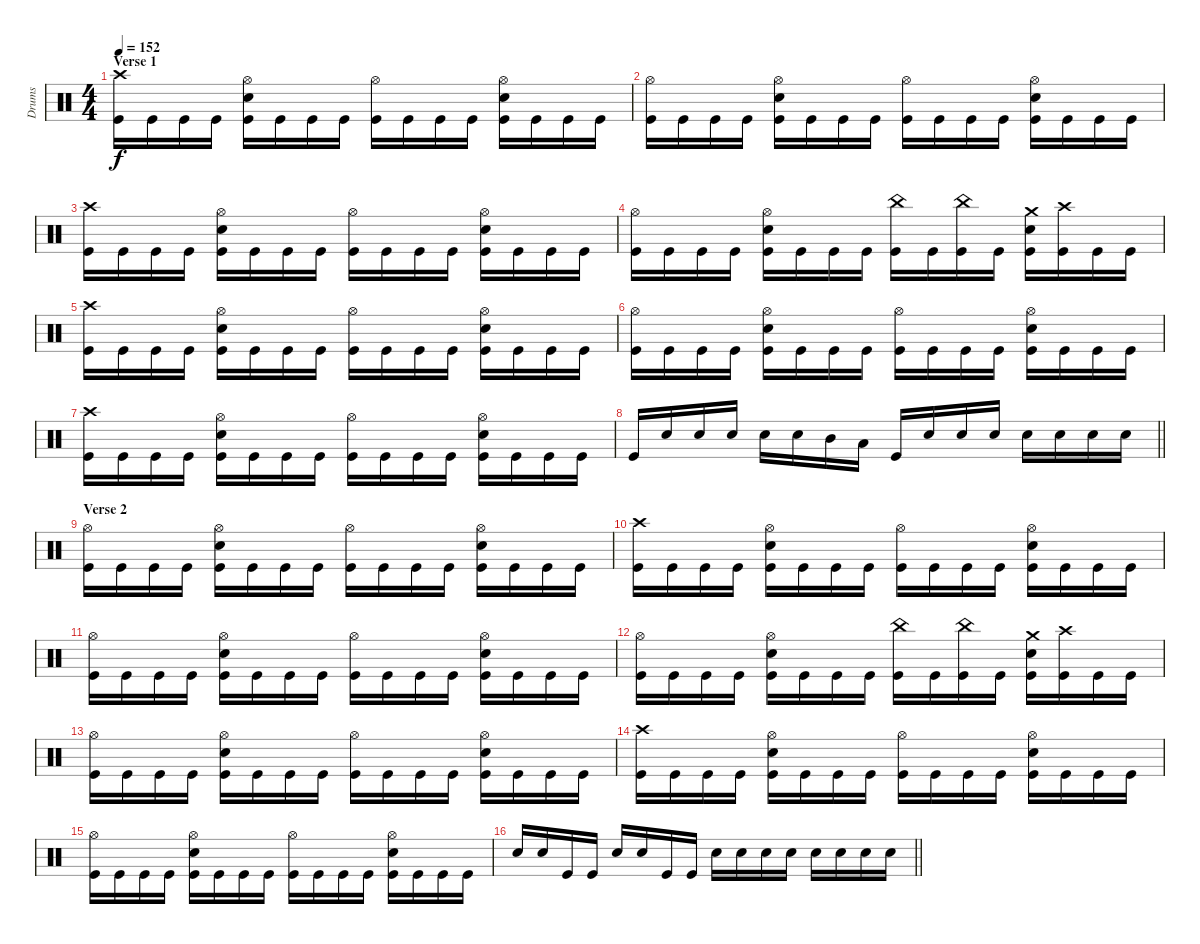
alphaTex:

\track ("Drums" "Drums") {instrument percussion}
\staff {score}
\articulation defaults
\ts (4 4)
\section ("" "Verse 1")
\tempo 152
\clef neutral
\ks c
("Crash high (hit)" "Kick (hit)").16{dy f} "Kick (hit)".16 "Kick (hit)".16 "Kick (hit)".16 ("Snare (hit) 2" "Hi-Hat (open)" "Kick (hit)").16 "Kick (hit)".16 "Kick (hit)".16 "Kick (hit)".16 ("Hi-Hat (open)" "Kick (hit)").16 "Kick (hit)".16 "Kick (hit)".16 "Kick (hit)".16 ("Hi-Hat (open)" "Snare (hit) 2" "Kick (hit)").16 "Kick (hit)".16 "Kick (hit)".16 "Kick (hit)".16 |
("Hi-Hat (open)" "Kick (hit)").16 "Kick (hit)".16 "Kick (hit)".16 "Kick (hit)".16 ("Snare (hit) 2" "Hi-Hat (open)" "Kick (hit)").16 "Kick (hit)".16 "Kick (hit)".16 "Kick (hit)".16 ("Hi-Hat (open)" "Kick (hit)").16 "Kick (hit)".16 "Kick (hit)".16 "Kick (hit)".16 ("Hi-Hat (open)" "Snare (hit) 2" "Kick (hit)").16 "Kick (hit)".16 "Kick (hit)".16 "Kick (hit)".16 |
("Crash high (hit)" "Kick (hit)").16 "Kick (hit)".16 "Kick (hit)".16 "Kick (hit)".16 ("Snare (hit) 2" "Hi-Hat (open)" "Kick (hit)").16 "Kick (hit)".16 "Kick (hit)".16 "Kick (hit)".16 ("Hi-Hat (open)" "Kick (hit)").16 "Kick (hit)".16 "Kick (hit)".16 "Kick (hit)".16 ("Hi-Hat (open)" "Snare (hit) 2" "Kick (hit)").16 "Kick (hit)".16 "Kick (hit)".16 "Kick (hit)".16 |
("Hi-Hat (open)" "Kick (hit)").16 "Kick (hit)".16 "Kick (hit)".16 "Kick (hit)".16 ("Snare (hit) 2" "Hi-Hat (open)" "Kick (hit)").16 "Kick (hit)".16 "Kick (hit)".16 "Kick (hit)".16 ("China (hit)" "Kick (hit)").16 "Kick (hit)".16 ("China (hit)" "Kick (hit)").16 "Kick (hit)".16 ("Crash medium (hit)" "Snare (hit) 2" "Kick (hit)").16 ("Crash high (hit)" "Kick (hit)").16 "Kick (hit)".16 "Kick (hit)".16 |
("Crash high (hit)" "Kick (hit)").16 "Kick (hit)".16 "Kick (hit)".16 "Kick (hit)".16 ("Snare (hit) 2" "Hi-Hat (open)" "Kick (hit)").16 "Kick (hit)".16 "Kick (hit)".16 "Kick (hit)".16 ("Hi-Hat (open)" "Kick (hit)").16 "Kick (hit)".16 "Kick (hit)".16 "Kick (hit)".16 ("Hi-Hat (open)" "Snare (hit) 2" "Kick (hit)").16 "Kick (hit)".16 "Kick (hit)".16 "Kick (hit)".16 |
("Hi-Hat (open)" "Kick (hit)").16 "Kick (hit)".16 "Kick (hit)".16 "Kick (hit)".16 ("Snare (hit) 2" "Hi-Hat (open)" "Kick (hit)").16 "Kick (hit)".16 "Kick (hit)".16 "Kick (hit)".16 ("Hi-Hat (open)" "Kick (hit)").16 "Kick (hit)".16 "Kick (hit)".16 "Kick (hit)".16 ("Hi-Hat (open)" "Snare (hit) 2" "Kick (hit)").16 "Kick (hit)".16 "Kick (hit)".16 "Kick (hit)".16 |
("Crash high (hit)" "Kick (hit)").16 "Kick (hit)".16 "Kick (hit)".16 "Kick (hit)".16 ("Snare (hit) 2" "Hi-Hat (open)" "Kick (hit)").16 "Kick (hit)".16 "Kick (hit)".16 "Kick (hit)".16 ("Hi-Hat (open)" "Kick (hit)").16 "Kick (hit)".16 "Kick (hit)".16 "Kick (hit)".16 ("Hi-Hat (open)" "Snare (hit) 2" "Kick (hit)").16 "Kick (hit)".16 "Kick (hit)".16 "Kick (hit)".16 |
\barLineRight lightlight "Kick (hit)".16 "Snare (hit) 2".16 "Snare (hit) 2".16 "Snare (hit) 2".16 "Snare (hit) 2".16 "Snare (hit) 2".16 "Mid Tom (hit)".16 "Low Tom (hit)".16 "Kick (hit)".16 "Snare (hit) 2".16 "Snare (hit) 2".16 "Snare (hit) 2".16 "Snare (hit) 2".16 "Snare (hit) 2".16 "Snare (hit) 2".16 "Snare (hit) 2".16
|
\section ("" "Verse 2")
("Hi-Hat (open)" "Kick (hit)").16 "Kick (hit)".16 "Kick (hit)".16 "Kick (hit)".16 ("Snare (hit) 2" "Hi-Hat (open)" "Kick (hit)").16 "Kick (hit)".16 "Kick (hit)".16 "Kick (hit)".16 ("Hi-Hat (open)" "Kick (hit)").16 "Kick (hit)".16 "Kick (hit)".16 "Kick (hit)".16 ("Hi-Hat (open)" "Snare (hit) 2" "Kick (hit)").16 "Kick (hit)".16 "Kick (hit)".16 "Kick (hit)".16 |
("Crash high (hit)" "Kick (hit)").16 "Kick (hit)".16 "Kick (hit)".16 "Kick (hit)".16 ("Snare (hit) 2" "Hi-Hat (open)" "Kick (hit)").16 "Kick (hit)".16 "Kick (hit)".16 "Kick (hit)".16 ("Hi-Hat (open)" "Kick (hit)").16 "Kick (hit)".16 "Kick (hit)".16 "Kick (hit)".16 ("Hi-Hat (open)" "Snare (hit) 2" "Kick (hit)").16 "Kick (hit)".16 "Kick (hit)".16 "Kick (hit)".16 |
("Hi-Hat (open)" "Kick (hit)").16 "Kick (hit)".16 "Kick (hit)".16 "Kick (hit)".16 ("Snare (hit) 2" "Hi-Hat (open)" "Kick (hit)").16 "Kick (hit)".16 "Kick (hit)".16 "Kick (hit)".16 ("Hi-Hat (open)" "Kick (hit)").16 "Kick (hit)".16 "Kick (hit)".16 "Kick (hit)".16 ("Hi-Hat (open)" "Snare (hit) 2" "Kick (hit)").16 "Kick (hit)".16 "Kick (hit)".16 "Kick (hit)".16 |
("Hi-Hat (open)" "Kick (hit)").16 "Kick (hit)".16 "Kick (hit)".16 "Kick (hit)".16 ("Snare (hit) 2" "Hi-Hat (open)" "Kick (hit)").16 "Kick (hit)".16 "Kick (hit)".16 "Kick (hit)".16 ("China (hit)" "Kick (hit)").16 "Kick (hit)".16 ("China (hit)" "Kick (hit)").16 "Kick (hit)".16 ("Crash medium (hit)" "Snare (hit) 2" "Kick (hit)").16 ("Crash high (hit)" "Kick (hit)").16 "Kick (hit)".16 "Kick (hit)".16 |
("Hi-Hat (open)" "Kick (hit)").16 "Kick (hit)".16 "Kick (hit)".16 "Kick (hit)".16 ("Snare (hit) 2" "Hi-Hat (open)" "Kick (hit)").16 "Kick (hit)".16 "Kick (hit)".16 "Kick (hit)".16 ("Hi-Hat (open)" "Kick (hit)").16 "Kick (hit)".16 "Kick (hit)".16 "Kick (hit)".16 ("Hi-Hat (open)" "Snare (hit) 2" "Kick (hit)").16 "Kick (hit)".16 "Kick (hit)".16 "Kick (hit)".16 |
("Crash high (hit)" "Kick (hit)").16 "Kick (hit)".16 "Kick (hit)".16 "Kick (hit)".16 ("Snare (hit) 2" "Hi-Hat (open)" "Kick (hit)").16 "Kick (hit)".16 "Kick (hit)".16 "Kick (hit)".16 ("Hi-Hat (open)" "Kick (hit)").16 "Kick (hit)".16 "Kick (hit)".16 "Kick (hit)".16 ("Hi-Hat (open)" "Snare (hit) 2" "Kick (hit)").16 "Kick (hit)".16 "Kick (hit)".16 "Kick (hit)".16 |
("Hi-Hat (open)" "Kick (hit)").16 "Kick (hit)".16 "Kick (hit)".16 "Kick (hit)".16 ("Snare (hit) 2" "Hi-Hat (open)" "Kick (hit)").16 "Kick (hit)".16 "Kick (hit)".16 "Kick (hit)".16 ("Hi-Hat (open)" "Kick (hit)").16 "Kick (hit)".16 "Kick (hit)".16 "Kick (hit)".16 ("Hi-Hat (open)" "Snare (hit) 2" "Kick (hit)").16 "Kick (hit)".16 "Kick (hit)".16 "Kick (hit)".16 |
\barLineRight lightlight "Snare (hit) 2".16 "Snare (hit) 2".16 "Kick (hit)".16 "Kick (hit)".16 "Snare (hit) 2".16 "Snare (hit) 2".16 "Kick (hit)".16 "Kick (hit)".16 "Snare (hit) 2".16 "Snare (hit) 2".16 "Snare (hit) 2".16 "Snare (hit) 2".16 "Snare (hit) 2".16 "Snare (hit) 2".16 "Snare (hit) 2".16 "Snare (hit) 2".16
